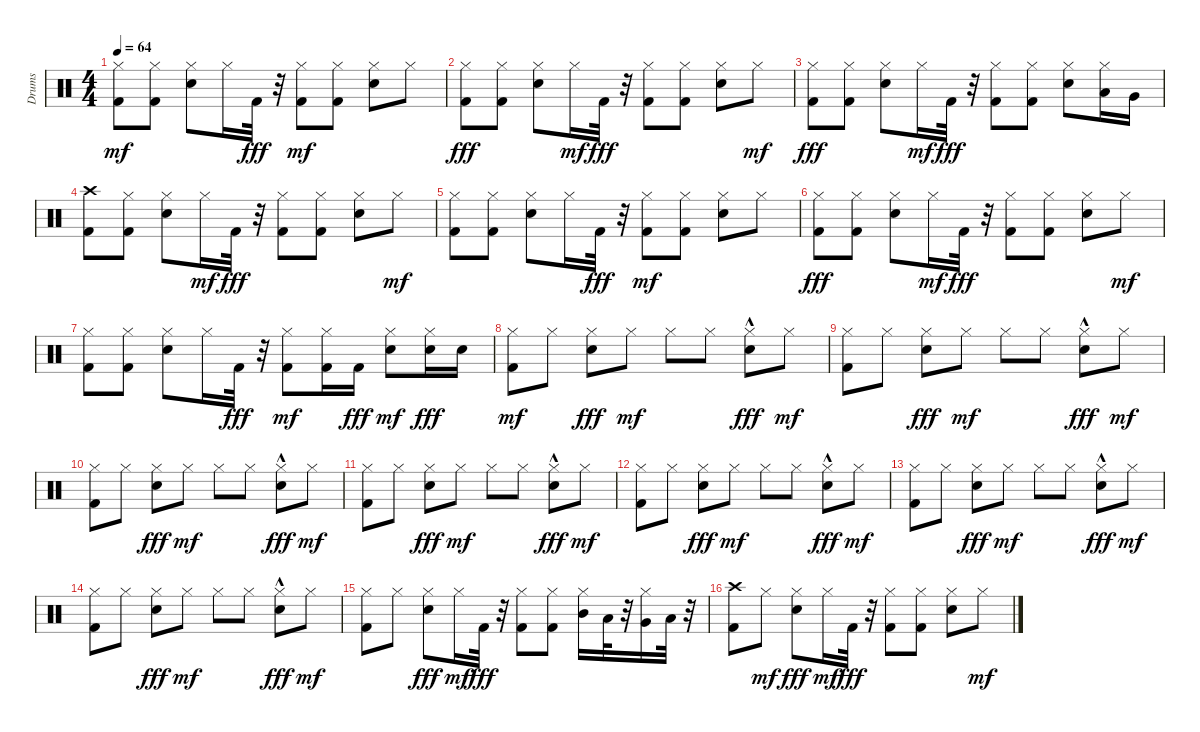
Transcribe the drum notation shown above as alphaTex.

\track ("Drums" "Drums") {instrument percussion}
\staff {score}
\articulation defaults
\ts (4 4)
\tempo 64
\clef neutral
\ks c
("Kick (hit) 2" "Hi-Hat (closed)").8{dy mf} ("Kick (hit) 2" "Hi-Hat (closed)").8 ("Snare (hit) 2" "Hi-Hat (closed)").8 "Hi-Hat (closed)".16 "Kick (hit) 2".32{dy fff} r.32 ("Kick (hit) 2" "Hi-Hat (closed)").8{dy mf} ("Kick (hit) 2" "Hi-Hat (closed)").8 ("Snare (hit) 2" "Hi-Hat (closed)").8 "Hi-Hat (closed)".8 |
("Hi-Hat (closed)" "Kick (hit) 2").8{dy fff} ("Hi-Hat (closed)" "Kick (hit) 2").8 ("Hi-Hat (closed)" "Snare (hit) 2").8 "Hi-Hat (closed)".16{dy mf} "Kick (hit) 2".32{dy fff} r.32 ("Hi-Hat (closed)" "Kick (hit) 2").8 ("Hi-Hat (closed)" "Kick (hit) 2").8 ("Hi-Hat (closed)" "Snare (hit) 2").8 "Hi-Hat (closed)".8{dy mf} |
("Hi-Hat (closed)" "Kick (hit) 2").8{dy fff} ("Hi-Hat (closed)" "Kick (hit) 2").8 ("Hi-Hat (closed)" "Snare (hit) 2").8 "Hi-Hat (closed)".16{dy mf} "Kick (hit) 2".32{dy fff} r.32 ("Hi-Hat (closed)" "Kick (hit) 2").8 ("Hi-Hat (closed)" "Kick (hit) 2").8 ("Hi-Hat (closed)" "Snare (hit) 2").8 ("Hi-Hat (closed)" "Low Tom (hit)").16 "Very Low Tom (hit)".16 |
("Crash high (hit)" "Kick (hit) 2").8 ("Hi-Hat (closed)" "Kick (hit) 2").8 ("Hi-Hat (closed)" "Snare (hit) 2").8 "Hi-Hat (closed)".16{dy mf} "Kick (hit) 2".32{dy fff} r.32 ("Hi-Hat (closed)" "Kick (hit) 2").8 ("Hi-Hat (closed)" "Kick (hit) 2").8 ("Hi-Hat (closed)" "Snare (hit) 2").8 "Hi-Hat (closed)".8{dy mf} |
("Kick (hit) 2" "Hi-Hat (closed)").8 ("Kick (hit) 2" "Hi-Hat (closed)").8 ("Snare (hit) 2" "Hi-Hat (closed)").8 "Hi-Hat (closed)".16 "Kick (hit) 2".32{dy fff} r.32 ("Kick (hit) 2" "Hi-Hat (closed)").8{dy mf} ("Kick (hit) 2" "Hi-Hat (closed)").8 ("Snare (hit) 2" "Hi-Hat (closed)").8 "Hi-Hat (closed)".8 |
("Hi-Hat (closed)" "Kick (hit) 2").8{dy fff} ("Hi-Hat (closed)" "Kick (hit) 2").8 ("Hi-Hat (closed)" "Snare (hit) 2").8 "Hi-Hat (closed)".16{dy mf} "Kick (hit) 2".32{dy fff} r.32 ("Hi-Hat (closed)" "Kick (hit) 2").8 ("Hi-Hat (closed)" "Kick (hit) 2").8 ("Hi-Hat (closed)" "Snare (hit) 2").8 "Hi-Hat (closed)".8{dy mf} |
("Kick (hit) 2" "Hi-Hat (closed)").8 ("Kick (hit) 2" "Hi-Hat (closed)").8 ("Snare (hit) 2" "Hi-Hat (closed)").8 "Hi-Hat (closed)".16 "Kick (hit) 2".32{dy fff} r.32 ("Kick (hit) 2" "Hi-Hat (closed)").8{dy mf} ("Kick (hit) 2" "Hi-Hat (closed)").16 "Kick (hit) 2".16{dy fff} ("Snare (hit) 2" "Hi-Hat (closed)").8{dy mf} ("Hi-Hat (closed)" "Snare (hit) 2").16{dy fff} "Snare (hit) 2".16 |
("Kick (hit) 2" "Hi-Hat (closed)").8{dy mf} "Hi-Hat (closed)".8 ("Hi-Hat (closed)" "Snare (hit) 2").8{dy fff} "Hi-Hat (closed)".8{dy mf} "Hi-Hat (closed)".8 "Hi-Hat (closed)".8 ("Hi-Hat (closed)" "Snare (hit) 2"{hac}).8{dy fff} "Hi-Hat (closed)".8{dy mf} |
("Kick (hit) 2" "Hi-Hat (closed)").8 "Hi-Hat (closed)".8 ("Hi-Hat (closed)" "Snare (hit) 2").8{dy fff} "Hi-Hat (closed)".8{dy mf} "Hi-Hat (closed)".8 "Hi-Hat (closed)".8 ("Hi-Hat (closed)" "Snare (hit) 2"{hac}).8{dy fff} "Hi-Hat (closed)".8{dy mf} |
("Kick (hit) 2" "Hi-Hat (closed)").8 "Hi-Hat (closed)".8 ("Hi-Hat (closed)" "Snare (hit) 2").8{dy fff} "Hi-Hat (closed)".8{dy mf} "Hi-Hat (closed)".8 "Hi-Hat (closed)".8 ("Hi-Hat (closed)" "Snare (hit) 2"{hac}).8{dy fff} "Hi-Hat (closed)".8{dy mf} |
("Kick (hit) 2" "Hi-Hat (closed)").8 "Hi-Hat (closed)".8 ("Hi-Hat (closed)" "Snare (hit) 2").8{dy fff} "Hi-Hat (closed)".8{dy mf} "Hi-Hat (closed)".8 "Hi-Hat (closed)".8 ("Hi-Hat (closed)" "Snare (hit) 2"{hac}).8{dy fff} "Hi-Hat (closed)".8{dy mf} |
("Kick (hit) 2" "Hi-Hat (closed)").8 "Hi-Hat (closed)".8 ("Hi-Hat (closed)" "Snare (hit) 2").8{dy fff} "Hi-Hat (closed)".8{dy mf} "Hi-Hat (closed)".8 "Hi-Hat (closed)".8 ("Hi-Hat (closed)" "Snare (hit) 2"{hac}).8{dy fff} "Hi-Hat (closed)".8{dy mf} |
("Kick (hit) 2" "Hi-Hat (closed)").8 "Hi-Hat (closed)".8 ("Hi-Hat (closed)" "Snare (hit) 2").8{dy fff} "Hi-Hat (closed)".8{dy mf} "Hi-Hat (closed)".8 "Hi-Hat (closed)".8 ("Hi-Hat (closed)" "Snare (hit) 2"{hac}).8{dy fff} "Hi-Hat (closed)".8{dy mf} |
("Kick (hit) 2" "Hi-Hat (closed)").8 "Hi-Hat (closed)".8 ("Hi-Hat (closed)" "Snare (hit) 2").8{dy fff} "Hi-Hat (closed)".8{dy mf} "Hi-Hat (closed)".8 "Hi-Hat (closed)".8 ("Hi-Hat (closed)" "Snare (hit) 2"{hac}).8{dy fff} "Hi-Hat (closed)".8{dy mf} |
("Kick (hit) 2" "Hi-Hat (closed)").8 "Hi-Hat (closed)".8 ("Hi-Hat (closed)" "Snare (hit) 2").8{dy fff} "Hi-Hat (closed)".16{dy mf} "Kick (hit) 2".32{dy fff} r.32 ("Hi-Hat (closed)" "Kick (hit) 2").8 ("Hi-Hat (closed)" "Kick (hit) 2").8 ("Hi-Hat (closed)" "Mid Tom (hit)").16 "Low Tom (hit)".32 r.32 ("Hi-Hat (closed)" "Very Low Tom (hit)").16 "Low Floor Tom (hit)".32 r.32 |
("Crash high (hit)" "Kick (hit) 2").8 "Hi-Hat (closed)".8{dy mf} ("Hi-Hat (closed)" "Snare (hit) 2").8{dy fff} "Hi-Hat (closed)".16{dy mf} "Kick (hit) 2".32{dy fff} r.32 ("Hi-Hat (closed)" "Kick (hit) 2").8 ("Hi-Hat (closed)" "Kick (hit) 2").8 ("Hi-Hat (closed)" "Snare (hit) 2").8 "Hi-Hat (closed)".8{dy mf}
